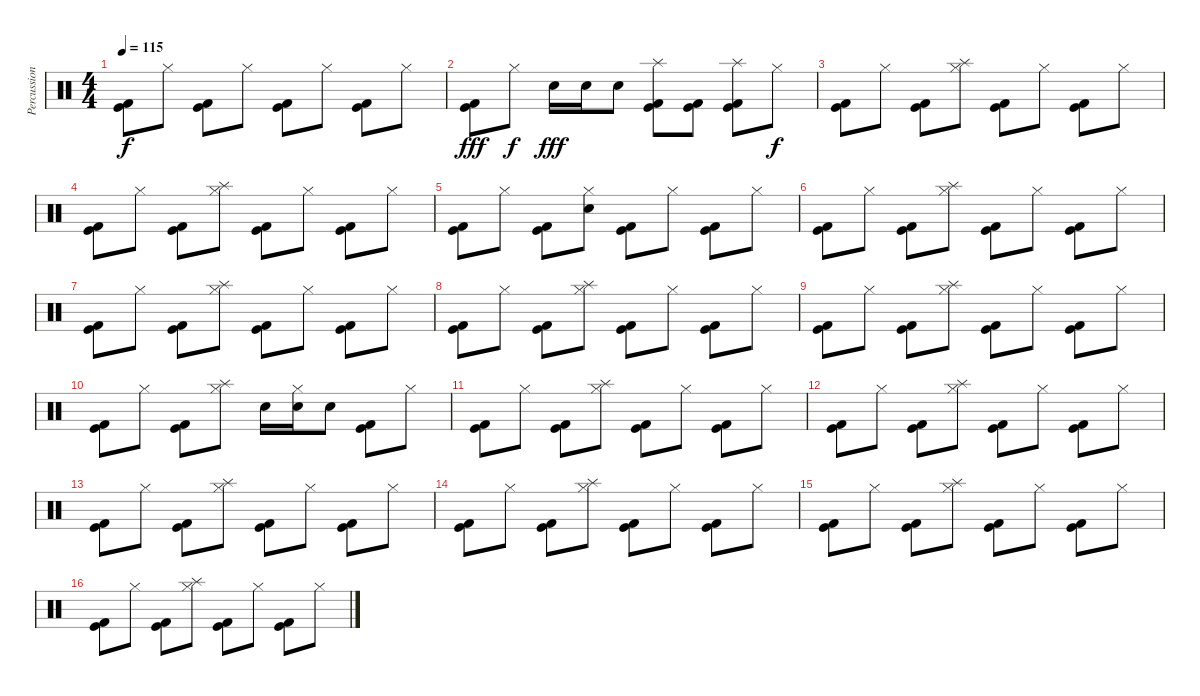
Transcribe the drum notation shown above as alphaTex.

\track ("Percussion" "Percussion") {instrument percussion}
\staff {score}
\articulation defaults
\ts (4 4)
\tempo 115
\clef neutral
\ks c
("Kick (hit) 2" "Kick (hit)").8{dy f} "Hi-Hat (closed)".8 ("Kick (hit) 2" "Kick (hit)").8 "Hi-Hat (closed)".8 ("Kick (hit) 2" "Kick (hit)").8 "Hi-Hat (closed)".8 ("Kick (hit) 2" "Kick (hit)").8 "Hi-Hat (closed)".8 |
("Kick (hit) 2" "Kick (hit)").8{dy fff} "Hi-Hat (closed)".8{dy f} "Snare (hit) 2".16{dy fff} "Snare (hit) 2".16 "Snare (hit) 2".8 ("Splash (hit)" "Kick (hit) 2" "Kick (hit)").8 ("Kick (hit) 2" "Kick (hit)").8 ("Splash (hit)" "Kick (hit) 2" "Kick (hit)").8 "Hi-Hat (closed)".8{dy f} |
("Kick (hit) 2" "Kick (hit)").8 "Hi-Hat (closed)".8 ("Kick (hit) 2" "Kick (hit)").8 ("Hi-Hat (closed)" "Splash (hit)").8 ("Kick (hit) 2" "Kick (hit)").8 "Hi-Hat (closed)".8 ("Kick (hit) 2" "Kick (hit)").8 "Hi-Hat (closed)".8 |
("Kick (hit) 2" "Kick (hit)").8 "Hi-Hat (closed)".8 ("Kick (hit) 2" "Kick (hit)").8 ("Hi-Hat (closed)" "Splash (hit)").8 ("Kick (hit) 2" "Kick (hit)").8 "Hi-Hat (closed)".8 ("Kick (hit) 2" "Kick (hit)").8 "Hi-Hat (closed)".8 |
("Kick (hit) 2" "Kick (hit)").8 "Hi-Hat (closed)".8 ("Kick (hit) 2" "Kick (hit)").8 ("Hi-Hat (closed)" "Snare (hit)").8 ("Kick (hit) 2" "Kick (hit)").8 "Hi-Hat (closed)".8 ("Kick (hit) 2" "Kick (hit)").8 "Hi-Hat (closed)".8 |
("Kick (hit) 2" "Kick (hit)").8 "Hi-Hat (closed)".8 ("Kick (hit) 2" "Kick (hit)").8 ("Hi-Hat (closed)" "Splash (hit)").8 ("Kick (hit) 2" "Kick (hit)").8 "Hi-Hat (closed)".8 ("Kick (hit) 2" "Kick (hit)").8 "Hi-Hat (closed)".8 |
("Kick (hit) 2" "Kick (hit)").8 "Hi-Hat (closed)".8 ("Kick (hit) 2" "Kick (hit)").8 ("Hi-Hat (closed)" "Splash (hit)").8 ("Kick (hit) 2" "Kick (hit)").8 "Hi-Hat (closed)".8 ("Kick (hit) 2" "Kick (hit)").8 "Hi-Hat (closed)".8 |
("Kick (hit) 2" "Kick (hit)").8 "Hi-Hat (closed)".8 ("Kick (hit) 2" "Kick (hit)").8 ("Hi-Hat (closed)" "Splash (hit)").8 ("Kick (hit) 2" "Kick (hit)").8 "Hi-Hat (closed)".8 ("Kick (hit) 2" "Kick (hit)").8 "Hi-Hat (closed)".8 |
("Kick (hit) 2" "Kick (hit)").8 "Hi-Hat (closed)".8 ("Kick (hit) 2" "Kick (hit)").8 ("Hi-Hat (closed)" "Splash (hit)").8 ("Kick (hit) 2" "Kick (hit)").8 "Hi-Hat (closed)".8 ("Kick (hit) 2" "Kick (hit)").8 "Hi-Hat (closed)".8 |
("Kick (hit) 2" "Kick (hit)").8 "Hi-Hat (closed)".8 ("Kick (hit) 2" "Kick (hit)").8 ("Hi-Hat (closed)" "Splash (hit)").8 "Snare (hit) 2".16 ("Hi-Hat (closed)" "Snare (hit) 2").16 "Snare (hit) 2".8 ("Kick (hit) 2" "Kick (hit)").8 "Hi-Hat (closed)".8 |
("Kick (hit) 2" "Kick (hit)").8 "Hi-Hat (closed)".8 ("Kick (hit) 2" "Kick (hit)").8 ("Hi-Hat (closed)" "Splash (hit)").8 ("Kick (hit) 2" "Kick (hit)").8 "Hi-Hat (closed)".8 ("Kick (hit) 2" "Kick (hit)").8 "Hi-Hat (closed)".8 |
("Kick (hit) 2" "Kick (hit)").8 "Hi-Hat (closed)".8{volume 11} ("Kick (hit) 2" "Kick (hit)").8 ("Hi-Hat (closed)" "Splash (hit)").8 ("Kick (hit) 2" "Kick (hit)").8 "Hi-Hat (closed)".8 ("Kick (hit) 2" "Kick (hit)").8 "Hi-Hat (closed)".8 |
("Kick (hit) 2" "Kick (hit)").8 "Hi-Hat (closed)".8{volume 9} ("Kick (hit) 2" "Kick (hit)").8 ("Hi-Hat (closed)" "Splash (hit)").8 ("Kick (hit) 2" "Kick (hit)").8 "Hi-Hat (closed)".8 ("Kick (hit) 2" "Kick (hit)").8 "Hi-Hat (closed)".8 |
("Kick (hit) 2" "Kick (hit)").8 "Hi-Hat (closed)".8{volume 7} ("Kick (hit) 2" "Kick (hit)").8 ("Hi-Hat (closed)" "Splash (hit)").8 ("Kick (hit) 2" "Kick (hit)").8 "Hi-Hat (closed)".8 ("Kick (hit) 2" "Kick (hit)").8 "Hi-Hat (closed)".8 |
("Kick (hit) 2" "Kick (hit)").8{volume 6} "Hi-Hat (closed)".8 ("Kick (hit) 2" "Kick (hit)").8 ("Hi-Hat (closed)" "Splash (hit)").8 ("Kick (hit) 2" "Kick (hit)").8 "Hi-Hat (closed)".8 ("Kick (hit) 2" "Kick (hit)").8 "Hi-Hat (closed)".8 |
("Kick (hit) 2" "Kick (hit)").8{volume 5} "Hi-Hat (closed)".8 ("Kick (hit) 2" "Kick (hit)").8 ("Hi-Hat (closed)" "Splash (hit)").8 ("Kick (hit) 2" "Kick (hit)").8 "Hi-Hat (closed)".8 ("Kick (hit) 2" "Kick (hit)").8 "Hi-Hat (closed)".8
